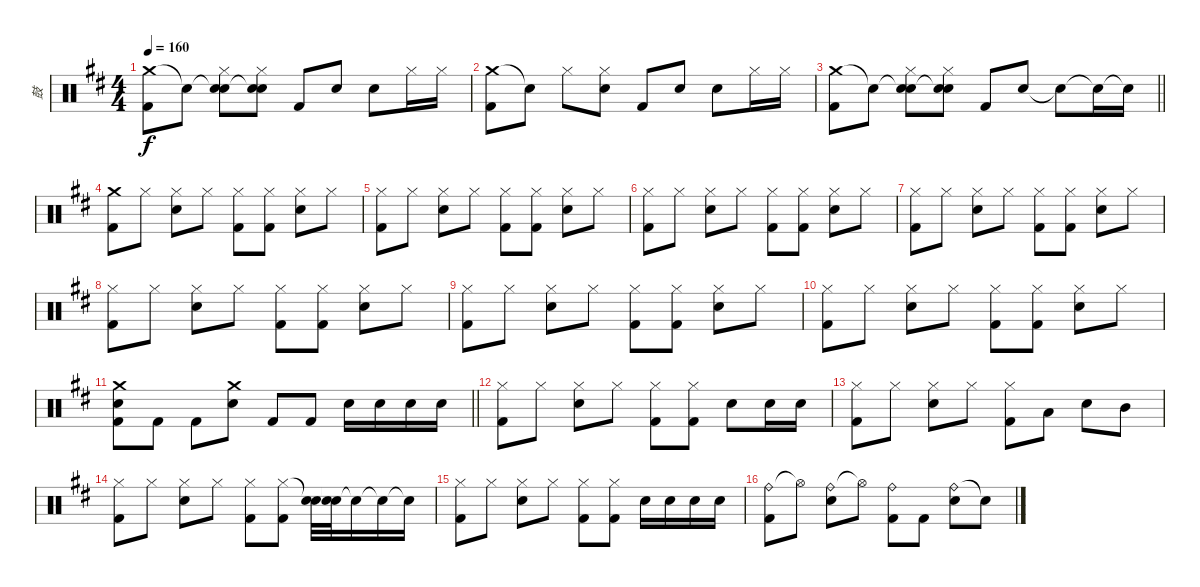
\track ("鼓" "鼓") {instrument percussion}
\staff {score}
\articulation defaults
\ts (4 4)
\tempo 160
\clef neutral
\ks d
("Crash medium (hit)" "Kick (hit) 2").8{dy f} "Snare (hit)"{t}.8 ("Snare (hit)"{t} "Hi-Hat (closed)" "Electric Snare (hit)").8 ("Snare (hit)"{t} "Hi-Hat (closed)" "Electric Snare (hit)").8 "Kick (hit) 2".8 "Electric Snare (hit)".8 "Electric Snare (hit)".8 "Hi-Hat (closed)".16 "Hi-Hat (closed)".16 |
("Crash medium (hit)" "Kick (hit) 2").8 "Snare (hit)"{t}.8 "Hi-Hat (closed)".8 ("Hi-Hat (closed)" "Electric Snare (hit)").8 "Kick (hit) 2".8 "Electric Snare (hit)".8 "Electric Snare (hit)".8 "Hi-Hat (closed)".16 "Hi-Hat (closed)".16 |
\barLineRight lightlight
("Crash medium (hit)" "Kick (hit) 2").8 "Snare (hit)"{t}.8 ("Snare (hit)"{t} "Hi-Hat (closed)" "Electric Snare (hit)").8 ("Snare (hit)"{t} "Hi-Hat (closed)" "Electric Snare (hit)").8 "Kick (hit) 2".8 "Electric Snare (hit)".8 "Electric Snare (hit)"{t}.8 "Snare (hit)"{t}.16 "Snare (hit)"{t}.16 |
("Crash medium (hit)" "Kick (hit) 2").8 "Hi-Hat (closed)".8 ("Hi-Hat (closed)" "Electric Snare (hit)").8 "Hi-Hat (closed)".8 ("Hi-Hat (closed)" "Kick (hit) 2").8 ("Hi-Hat (closed)" "Kick (hit) 2").8 ("Hi-Hat (closed)" "Electric Snare (hit)").8 "Hi-Hat (closed)".8 |
("Hi-Hat (closed)" "Kick (hit) 2").8 "Hi-Hat (closed)".8 ("Hi-Hat (closed)" "Electric Snare (hit)").8 "Hi-Hat (closed)".8 ("Hi-Hat (closed)" "Kick (hit) 2").8 ("Hi-Hat (closed)" "Kick (hit) 2").8 ("Hi-Hat (closed)" "Electric Snare (hit)").8 "Hi-Hat (closed)".8 |
("Hi-Hat (closed)" "Kick (hit) 2").8 "Hi-Hat (closed)".8 ("Hi-Hat (closed)" "Electric Snare (hit)").8 "Hi-Hat (closed)".8 ("Hi-Hat (closed)" "Kick (hit) 2").8 ("Hi-Hat (closed)" "Kick (hit) 2").8 ("Hi-Hat (closed)" "Electric Snare (hit)").8 "Hi-Hat (closed)".8 |
("Hi-Hat (closed)" "Kick (hit) 2").8 "Hi-Hat (closed)".8 ("Hi-Hat (closed)" "Electric Snare (hit)").8 "Hi-Hat (closed)".8 ("Hi-Hat (closed)" "Kick (hit) 2").8 ("Hi-Hat (closed)" "Kick (hit) 2").8 ("Hi-Hat (closed)" "Electric Snare (hit)").8 "Hi-Hat (closed)".8 |
("Hi-Hat (closed)" "Kick (hit) 2").8 "Hi-Hat (closed)".8 ("Hi-Hat (closed)" "Electric Snare (hit)").8 "Hi-Hat (closed)".8 ("Hi-Hat (closed)" "Kick (hit) 2").8 ("Hi-Hat (closed)" "Kick (hit) 2").8 ("Hi-Hat (closed)" "Electric Snare (hit)").8 "Hi-Hat (closed)".8 |
("Hi-Hat (closed)" "Kick (hit) 2").8 "Hi-Hat (closed)".8 ("Hi-Hat (closed)" "Electric Snare (hit)").8 "Hi-Hat (closed)".8 ("Hi-Hat (closed)" "Kick (hit) 2").8 ("Hi-Hat (closed)" "Kick (hit) 2").8 ("Hi-Hat (closed)" "Electric Snare (hit)").8 "Hi-Hat (closed)".8 |
("Hi-Hat (closed)" "Kick (hit) 2").8 "Hi-Hat (closed)".8 ("Hi-Hat (closed)" "Electric Snare (hit)").8 "Hi-Hat (closed)".8 ("Hi-Hat (closed)" "Kick (hit) 2").8 ("Hi-Hat (closed)" "Kick (hit) 2").8 ("Hi-Hat (closed)" "Electric Snare (hit)").8 "Hi-Hat (closed)".8 |
\barLineRight lightlight
("Crash medium (hit)" "Electric Snare (hit)" "Kick (hit) 2").8 "Kick (hit) 2".8 "Kick (hit) 2".8 ("Crash medium (hit)" "Electric Snare (hit)").8 "Kick (hit) 2".8 "Kick (hit) 2".8 "Electric Snare (hit)".16 "Electric Snare (hit)".16 "Electric Snare (hit)".16 "Electric Snare (hit)".16 |
("Hi-Hat (closed)" "Kick (hit) 2").8 "Hi-Hat (closed)".8 ("Hi-Hat (closed)" "Electric Snare (hit)").8 "Hi-Hat (closed)".8 ("Hi-Hat (closed)" "Kick (hit) 2").8 ("Hi-Hat (closed)" "Kick (hit) 2").8 "Electric Snare (hit)".8 "Electric Snare (hit)".16 "Electric Snare (hit)".16 |
("Hi-Hat (closed)" "Kick (hit) 2").8 "Hi-Hat (closed)".8 ("Hi-Hat (closed)" "Electric Snare (hit)").8 "Hi-Hat (closed)".8 ("Hi-Hat (closed)" "Kick (hit) 2").8 "Low Tom (hit)".8 "Electric Snare (hit)".8 "Mid Tom (hit)".8 |
("Hi-Hat (closed)" "Kick (hit) 2").8 "Hi-Hat (closed)".8 ("Hi-Hat (closed)" "Electric Snare (hit)").8 "Hi-Hat (closed)".8 ("Hi-Hat (closed)" "Kick (hit) 2").8 ("Hi-Hat (closed)" "Kick (hit) 2").8 ("Snare (hit)"{t} "Electric Snare (hit)").32 ("Snare (hit)"{t} "Electric Snare (hit)").32 "Snare (hit)"{t}.16 "Electric Snare (hit)"{t}.16 "Electric Snare (hit)"{t}.16 |
("Hi-Hat (closed)" "Kick (hit) 2").8 "Hi-Hat (closed)".8 ("Hi-Hat (closed)" "Electric Snare (hit)").8 "Hi-Hat (closed)".8 ("Hi-Hat (closed)" "Kick (hit) 2").8 ("Hi-Hat (closed)" "Kick (hit) 2").8 "Electric Snare (hit)".16 "Electric Snare (hit)".16 "Electric Snare (hit)".16 "Electric Snare (hit)".16 |
("Ride (bell)" "Kick (hit) 2").8 "Hi-Hat (open)"{t}.8 ("Ride (bell)" "Electric Snare (hit)").8 "Hi-Hat (open)"{t}.8 ("Ride (bell)" "Kick (hit) 2").8 "Kick (hit) 2".8 ("Ride (bell)" "Electric Snare (hit)").8 "Snare (hit)"{t}.8
